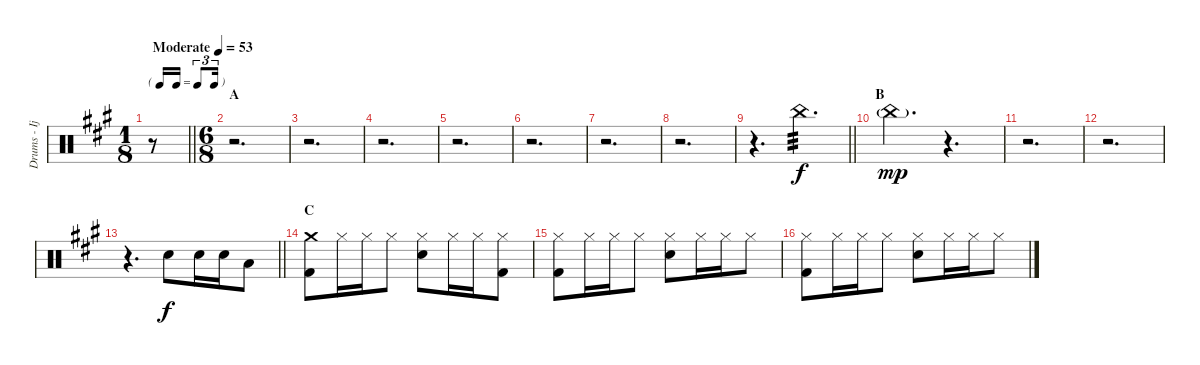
\track ("Drums - Ijichi Kiyoshi" "Drums - Ij") {instrument percussion}
\staff {score}
\articulation defaults
\ts (1 8)
\tf triplet16th
\tempo (53 "Moderate")
\clef neutral
\barLineRight lightlight
\ks a
r.8{dy f} |
\ts (6 8)
\section ("" "A")
r.2{d} |
r.2{d} |
r.2{d} |
r.2{d} |
r.2{d} |
r.2{d} |
r.2{d} |
\barLineRight lightlight
r.4{d volume 3} "China (hit)".4{d tp 3 volume 13} |
\section ("" "B")
"China (hit)"{g}.4{d dy mp} r.4{d} |
r.2{d} |
r.2{d} |
\barLineRight lightlight
r.4{d} "Electric Snare (hit)".8{dy f} "Electric Snare (hit)".16 "Electric Snare (hit)".16 "Low Tom (hit)".8 |
\section ("" "C")
("Crash medium (hit)" "Kick (hit) 2").8 "Hi-Hat (closed)".16 "Hi-Hat (closed)".16 "Hi-Hat (closed)".8 ("Hi-Hat (closed)" "Electric Snare (hit)").8 "Hi-Hat (closed)".16 "Hi-Hat (closed)".16 ("Hi-Hat (closed)" "Kick (hit) 2").8 |
("Hi-Hat (closed)" "Kick (hit) 2").8 "Hi-Hat (closed)".16 "Hi-Hat (closed)".16 "Hi-Hat (closed)".8 ("Hi-Hat (closed)" "Electric Snare (hit)").8 "Hi-Hat (closed)".16 "Hi-Hat (closed)".16 "Hi-Hat (closed)".8 |
("Hi-Hat (closed)" "Kick (hit) 2").8 "Hi-Hat (closed)".16 "Hi-Hat (closed)".16 "Hi-Hat (closed)".8 ("Hi-Hat (closed)" "Electric Snare (hit)").8 "Hi-Hat (closed)".16 "Hi-Hat (closed)".16 "Hi-Hat (closed)".8
